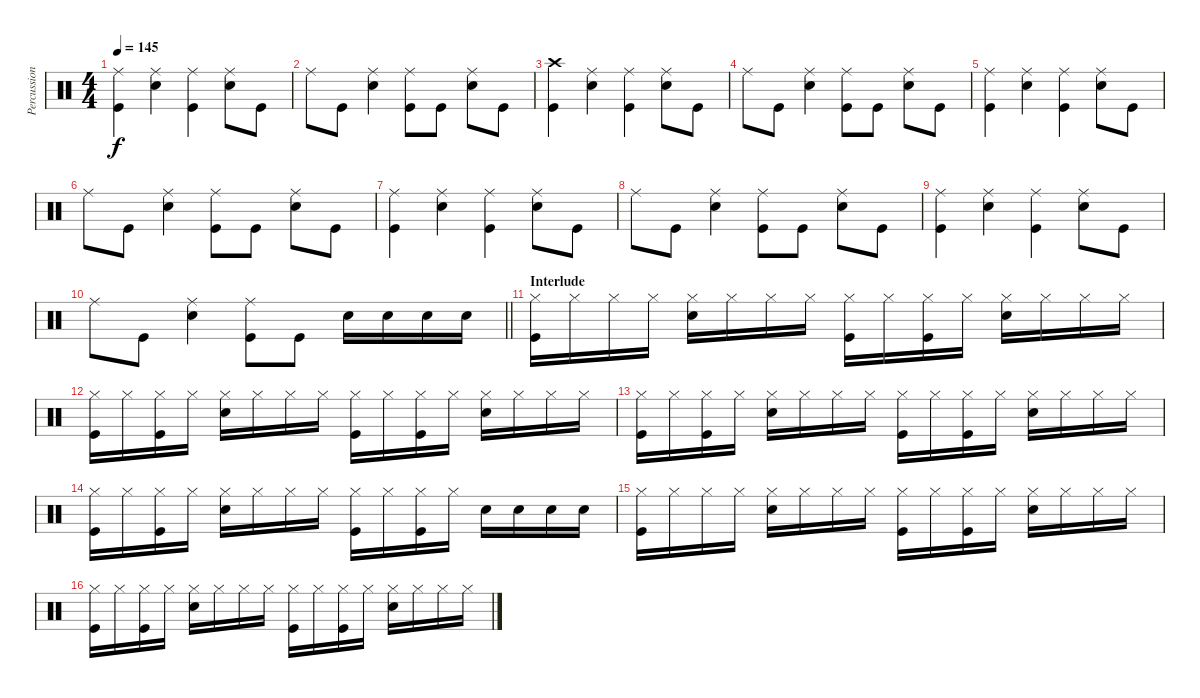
\track ("Percussion" "Percussion") {instrument percussion}
\staff {score}
\articulation defaults
\ts (4 4)
\tempo 145
\clef neutral
\ks c
("Kick (hit)" "Ride (middle)").4{dy f} ("Ride (middle)" "Snare (hit) 2").4 ("Kick (hit)" "Ride (middle)").4 ("Ride (middle)" "Snare (hit) 2").8 "Kick (hit)".8 |
"Ride (middle)".8 "Kick (hit)".8 ("Ride (middle)" "Snare (hit) 2").4 ("Kick (hit)" "Ride (middle)").8 "Kick (hit)".8 ("Ride (middle)" "Snare (hit) 2").8 "Kick (hit)".8 |
("Kick (hit)" "Crash high (hit)").4 ("Ride (middle)" "Snare (hit) 2").4 ("Kick (hit)" "Ride (middle)").4 ("Ride (middle)" "Snare (hit) 2").8 "Kick (hit)".8 |
"Ride (middle)".8 "Kick (hit)".8 ("Ride (middle)" "Snare (hit) 2").4 ("Kick (hit)" "Ride (middle)").8 "Kick (hit)".8 ("Ride (middle)" "Snare (hit) 2").8 "Kick (hit)".8 |
("Kick (hit)" "Ride (middle)").4 ("Ride (middle)" "Snare (hit) 2").4 ("Kick (hit)" "Ride (middle)").4 ("Ride (middle)" "Snare (hit) 2").8 "Kick (hit)".8 |
"Ride (middle)".8 "Kick (hit)".8 ("Ride (middle)" "Snare (hit) 2").4 ("Kick (hit)" "Ride (middle)").8 "Kick (hit)".8 ("Ride (middle)" "Snare (hit) 2").8 "Kick (hit)".8 |
("Kick (hit)" "Ride (middle)").4 ("Ride (middle)" "Snare (hit) 2").4 ("Kick (hit)" "Ride (middle)").4 ("Ride (middle)" "Snare (hit) 2").8 "Kick (hit)".8 |
"Ride (middle)".8 "Kick (hit)".8 ("Ride (middle)" "Snare (hit) 2").4 ("Kick (hit)" "Ride (middle)").8 "Kick (hit)".8 ("Ride (middle)" "Snare (hit) 2").8 "Kick (hit)".8 |
("Kick (hit)" "Ride (middle)").4 ("Ride (middle)" "Snare (hit) 2").4 ("Kick (hit)" "Ride (middle)").4 ("Ride (middle)" "Snare (hit) 2").8 "Kick (hit)".8 |
\barLineRight lightlight "Ride (middle)".8 "Kick (hit)".8
("Ride (middle)" "Snare (hit) 2").4 ("Kick (hit)" "Ride (middle)").8 "Kick (hit)".8 "Snare (hit) 2".16 "Snare (hit) 2".16 "Snare (hit) 2".16 "Snare (hit) 2".16 |
\section ("" "Interlude")
("Kick (hit)" "Hi-Hat (closed)").16 "Hi-Hat (closed)".16 "Hi-Hat (closed)".16 "Hi-Hat (closed)".16 ("Hi-Hat (closed)" "Snare (hit) 2").16 "Hi-Hat (closed)".16 "Hi-Hat (closed)".16 "Hi-Hat (closed)".16 ("Kick (hit)" "Hi-Hat (closed)").16 "Hi-Hat (closed)".16 ("Kick (hit)" "Hi-Hat (closed)").16 "Hi-Hat (closed)".16 ("Hi-Hat (closed)" "Snare (hit) 2").16 "Hi-Hat (closed)".16 "Hi-Hat (closed)".16 "Hi-Hat (closed)".16 |
("Kick (hit)" "Hi-Hat (closed)").16 "Hi-Hat (closed)".16 ("Kick (hit)" "Hi-Hat (closed)").16 "Hi-Hat (closed)".16 ("Hi-Hat (closed)" "Snare (hit) 2").16 "Hi-Hat (closed)".16 "Hi-Hat (closed)".16 "Hi-Hat (closed)".16 ("Kick (hit)" "Hi-Hat (closed)").16 "Hi-Hat (closed)".16 ("Kick (hit)" "Hi-Hat (closed)").16 "Hi-Hat (closed)".16 ("Hi-Hat (closed)" "Snare (hit) 2").16 "Hi-Hat (closed)".16 "Hi-Hat (closed)".16 "Hi-Hat (closed)".16 |
("Kick (hit)" "Hi-Hat (closed)").16 "Hi-Hat (closed)".16 ("Kick (hit)" "Hi-Hat (closed)").16 "Hi-Hat (closed)".16 ("Hi-Hat (closed)" "Snare (hit) 2").16 "Hi-Hat (closed)".16 "Hi-Hat (closed)".16 "Hi-Hat (closed)".16 ("Kick (hit)" "Hi-Hat (closed)").16 "Hi-Hat (closed)".16 ("Kick (hit)" "Hi-Hat (closed)").16 "Hi-Hat (closed)".16 ("Hi-Hat (closed)" "Snare (hit) 2").16 "Hi-Hat (closed)".16 "Hi-Hat (closed)".16 "Hi-Hat (closed)".16 |
("Kick (hit)" "Hi-Hat (closed)").16 "Hi-Hat (closed)".16 ("Kick (hit)" "Hi-Hat (closed)").16 "Hi-Hat (closed)".16 ("Hi-Hat (closed)" "Snare (hit) 2").16 "Hi-Hat (closed)".16 "Hi-Hat (closed)".16 "Hi-Hat (closed)".16 ("Kick (hit)" "Hi-Hat (closed)").16 "Hi-Hat (closed)".16 ("Kick (hit)" "Hi-Hat (closed)").16 "Hi-Hat (closed)".16 "Snare (hit) 2".16 "Snare (hit) 2".16 "Snare (hit) 2".16 "Snare (hit) 2".16 |
("Kick (hit)" "Hi-Hat (closed)").16 "Hi-Hat (closed)".16 "Hi-Hat (closed)".16 "Hi-Hat (closed)".16 ("Hi-Hat (closed)" "Snare (hit) 2").16 "Hi-Hat (closed)".16 "Hi-Hat (closed)".16 "Hi-Hat (closed)".16 ("Kick (hit)" "Hi-Hat (closed)").16 "Hi-Hat (closed)".16 ("Kick (hit)" "Hi-Hat (closed)").16 "Hi-Hat (closed)".16 ("Hi-Hat (closed)" "Snare (hit) 2").16 "Hi-Hat (closed)".16 "Hi-Hat (closed)".16 "Hi-Hat (closed)".16 |
("Kick (hit)" "Hi-Hat (closed)").16 "Hi-Hat (closed)".16 ("Kick (hit)" "Hi-Hat (closed)").16 "Hi-Hat (closed)".16 ("Hi-Hat (closed)" "Snare (hit) 2").16 "Hi-Hat (closed)".16 "Hi-Hat (closed)".16 "Hi-Hat (closed)".16 ("Kick (hit)" "Hi-Hat (closed)").16 "Hi-Hat (closed)".16 ("Kick (hit)" "Hi-Hat (closed)").16 "Hi-Hat (closed)".16 ("Hi-Hat (closed)" "Snare (hit) 2").16 "Hi-Hat (closed)".16 "Hi-Hat (closed)".16 "Hi-Hat (closed)".16
